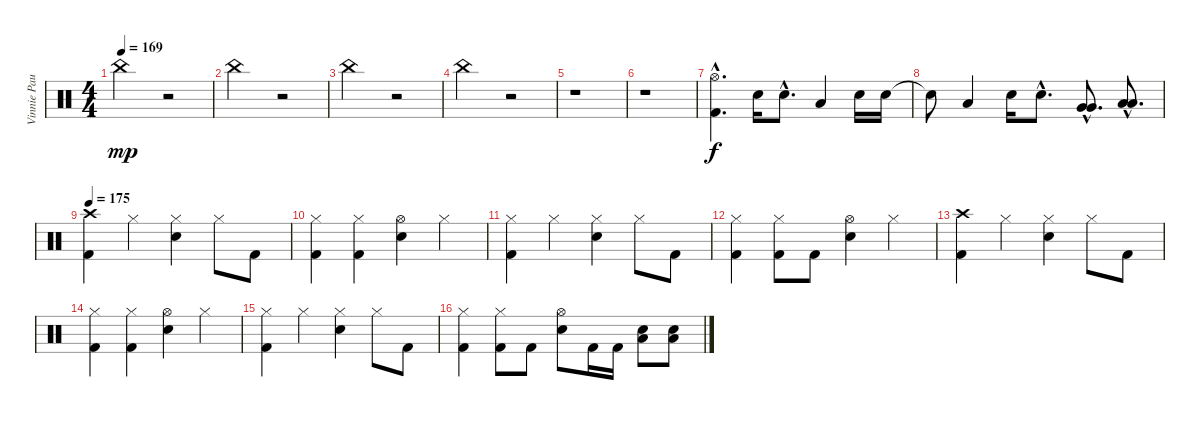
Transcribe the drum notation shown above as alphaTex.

\track ("Vinnie Paul (Drums)" "Vinnie Pau") {instrument percussion}
\staff {score}
\articulation defaults
\ts (4 4)
\tempo 169
\clef neutral
\ks c "China (hit)".2{dy mp}
r.2 |
"China (hit)".2 r.2 |
"China (hit)".2 r.2 |
"China (hit)".2 r.2 |
r.1 |
r.1 |
("Hi-Hat (open)"{hac} "Kick (hit) 2"{hac}).4{d dy f} "Snare (hit) 2".16 "Snare (hit) 2"{hac}.8{d} "Low Tom (hit)".4 "Snare (hit) 2".16 "Snare (hit) 2".16 |
"Snare (hit) 2"{t}.8 "Low Tom (hit)".4 "Snare (hit) 2".16 "Snare (hit) 2"{hac}.8{d} ("Very Low Tom (hit)"{hac} "Very Low Tom (hit)"{hac}).8{d bd 120} ("Low Floor Tom (hit)"{hac} "Low Floor Tom (hit)"{hac}).8{d bd 120} |
\tempo 175
("Crash high (hit)" "Kick (hit) 2").4 "Hi-Hat (closed)".4 ("Hi-Hat (closed)" "Snare (hit) 2").4 "Hi-Hat (closed)".8 "Kick (hit) 2".8 |
("Hi-Hat (closed)" "Kick (hit) 2").4 ("Hi-Hat (closed)" "Kick (hit) 2").4 ("Hi-Hat (open)" "Snare (hit) 2").4 "Hi-Hat (closed)".4 |
("Hi-Hat (closed)" "Kick (hit) 2").4 "Hi-Hat (closed)".4 ("Hi-Hat (closed)" "Snare (hit) 2").4 "Hi-Hat (closed)".8 "Kick (hit) 2".8 |
("Hi-Hat (closed)" "Kick (hit) 2").4 ("Hi-Hat (closed)" "Kick (hit) 2").8 "Kick (hit) 2".8 ("Hi-Hat (open)" "Snare (hit) 2").4 "Hi-Hat (closed)".4 |
("Crash high (hit)" "Kick (hit) 2").4 "Hi-Hat (closed)".4 ("Hi-Hat (closed)" "Snare (hit) 2").4 "Hi-Hat (closed)".8 "Kick (hit) 2".8 |
("Hi-Hat (closed)" "Kick (hit) 2").4 ("Hi-Hat (closed)" "Kick (hit) 2").4 ("Hi-Hat (open)" "Snare (hit) 2").4 "Hi-Hat (closed)".4 |
("Hi-Hat (closed)" "Kick (hit) 2").4 "Hi-Hat (closed)".4 ("Hi-Hat (closed)" "Snare (hit) 2").4 "Hi-Hat (closed)".8 "Kick (hit) 2".8 |
("Hi-Hat (closed)" "Kick (hit) 2").4 ("Hi-Hat (closed)" "Kick (hit) 2").8 "Kick (hit) 2".8 ("Hi-Hat (open)" "Snare (hit) 2").8 "Kick (hit) 2".16 "Kick (hit) 2".16 ("Low Floor Tom (hit)" "Snare (hit) 2").8 ("Low Floor Tom (hit)" "Snare (hit) 2").8
